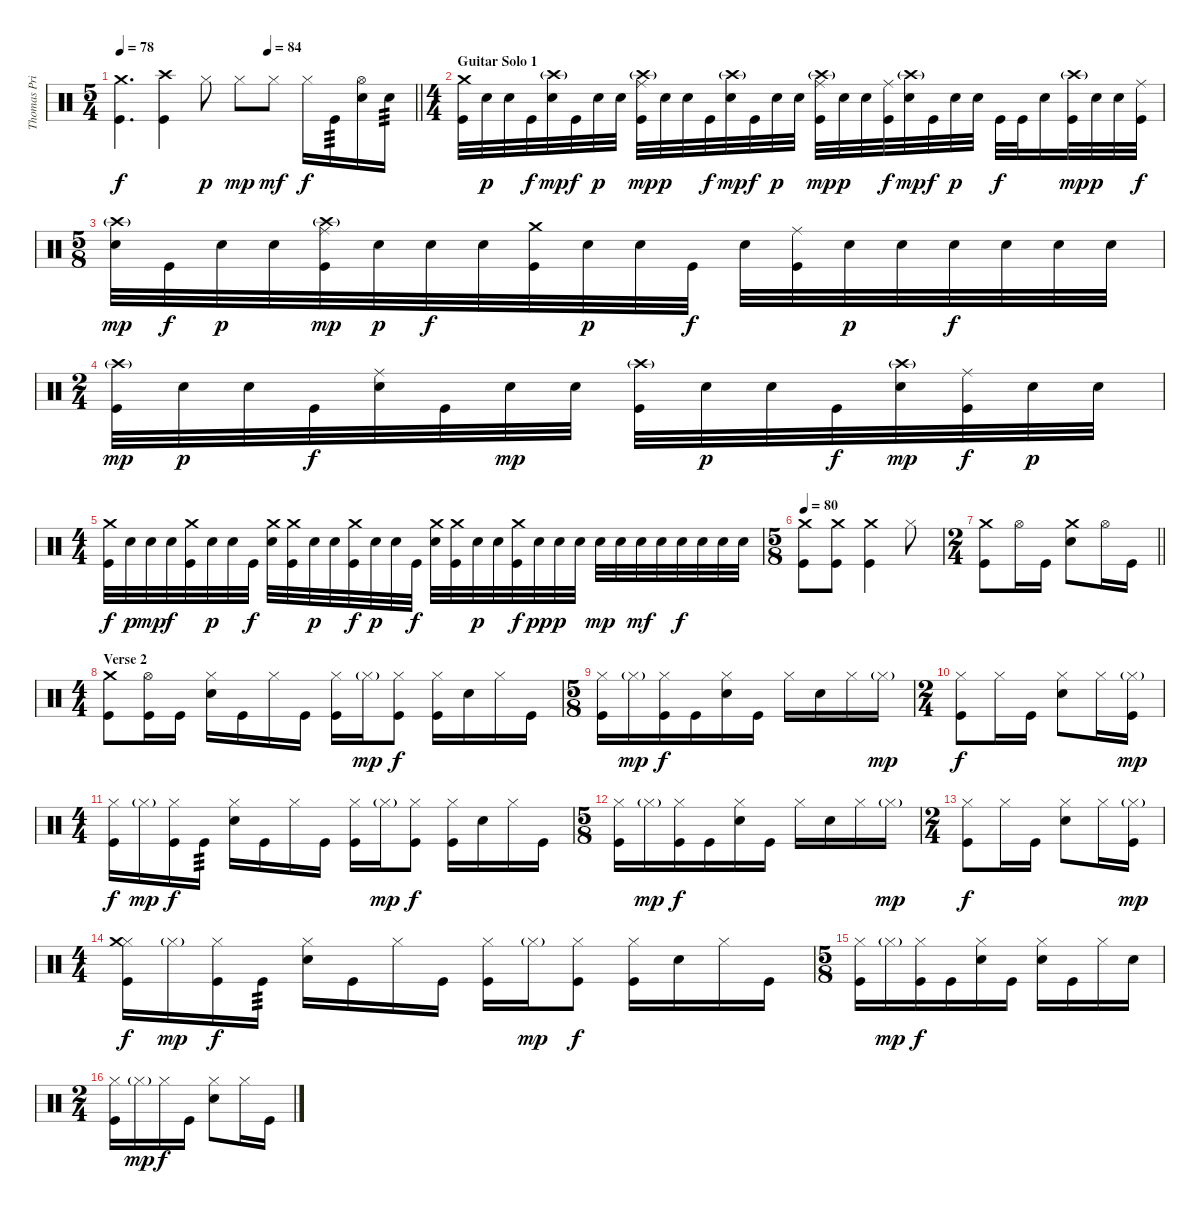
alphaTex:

\track ("Thomas Pridgen" "Thomas Pri") {instrument percussion}
\staff {score}
\articulation defaults
\ts (5 4)
\tempo 78
\tempo (84 0.5)
\clef neutral
\barLineRight lightlight
\ks c
("Crash medium (hit)" "Kick (hit)").4{d dy f} ("Crash high (hit)" "Kick (hit)").4 "Hi-Hat (closed)".8{dy p} "Hi-Hat (closed)".8{dy mp} "Hi-Hat (closed)".8{dy mf} "Hi-Hat (closed)".16{dy f} "Kick (hit)".16{tp 3} ("Hi-Hat (open)" "Snare (hit) 2").16 "Snare (hit) 2".16{tp 3} |
\ts (4 4)
\section ("" "Guitar Solo 1")
("Crash medium (hit)" "Kick (hit)").32 "Snare (hit) 2".32{dy p} "Snare (hit) 2".32 "Kick (hit)".32{dy f} ("Crash high (hit)"{g} "Snare (hit) 2").32{dy mp} "Kick (hit)".32{dy f} "Snare (hit) 2".32{dy p} "Snare (hit) 2".32 ("Crash high (hit)"{g} "Ride (middle)" "Kick (hit)").32{dy mp} "Snare (hit) 2".32{dy p} "Snare (hit) 2".32 "Kick (hit)".32{dy f} ("Crash high (hit)"{g} "Snare (hit) 2").32{dy mp} "Kick (hit)".32{dy f} "Snare (hit) 2".32{dy p} "Snare (hit) 2".32 ("Crash high (hit)"{g} "Ride (middle)" "Kick (hit)").32{dy mp} "Snare (hit) 2".32{dy p} "Snare (hit) 2".32 ("Ride (middle)" "Kick (hit)").32{dy f} ("Crash high (hit)"{g} "Snare (hit) 2").32{dy mp} "Kick (hit)".32{dy f} "Snare (hit) 2".32{dy p} "Snare (hit) 2".32 "Kick (hit)".32{dy f} "Kick (hit)".32 "Snare (hit) 2".16 ("Crash high (hit)"{g} "Kick (hit)").32{dy mp} "Snare (hit) 2".32{dy p} "Snare (hit) 2".32 ("Ride (middle)" "Kick (hit)").32{dy f} |
\ts (5 8)
("Crash high (hit)"{g} "Snare (hit) 2").32{dy mp} "Kick (hit)".32{dy f} "Snare (hit) 2".32{dy p} "Snare (hit) 2".32 ("Crash high (hit)"{g} "Ride (middle)" "Kick (hit)").32{dy mp} "Snare (hit) 2".32{dy p} "Snare (hit) 2".32{dy f} "Snare (hit) 2".32 ("Crash medium (hit)" "Kick (hit)").32 "Snare (hit) 2".32{dy p} "Snare (hit) 2".32 "Kick (hit)".32{dy f} "Snare (hit) 2".32 ("Ride (middle)" "Kick (hit)").32 "Snare (hit) 2".32{dy p} "Snare (hit) 2".32 "Snare (hit) 2".32{dy f} "Snare (hit) 2".32 "Snare (hit) 2".32 "Snare (hit) 2".32 |
\ts (2 4)
("Crash high (hit)"{g} "Kick (hit)").32{dy mp} "Snare (hit) 2".32{dy p} "Snare (hit) 2".32 "Kick (hit)".32{dy f} ("Ride (middle)" "Snare (hit) 2").32 "Kick (hit)".32 "Snare (hit) 2".32{dy mp} "Snare (hit) 2".32 ("Crash high (hit)"{g} "Kick (hit)").32 "Snare (hit) 2".32{dy p} "Snare (hit) 2".32 "Kick (hit)".32{dy f} ("Crash high (hit)"{g} "Snare (hit) 2").32{dy mp} ("Ride (middle)" "Kick (hit)").32{dy f} "Snare (hit) 2".32{dy p} "Snare (hit) 2".32 |
\ts (4 4)
("Crash medium (hit)" "Kick (hit)").32{dy f} "Snare (hit) 2".32{dy p} "Snare (hit) 2".32{dy mp} "Snare (hit) 2".32{dy f} ("Crash medium (hit)" "Kick (hit)").32 "Snare (hit) 2".32{dy p} "Snare (hit) 2".32 "Kick (hit)".32{dy f} ("Crash medium (hit)" "Snare (hit) 2").32 ("Crash medium (hit)" "Kick (hit)").32 "Snare (hit) 2".32{dy p} "Snare (hit) 2".32 ("Crash medium (hit)" "Kick (hit)").32{dy f} "Snare (hit) 2".32{dy p} "Snare (hit) 2".32 "Kick (hit)".32{dy f} ("Crash medium (hit)" "Snare (hit) 2").32 ("Crash medium (hit)" "Kick (hit)").32 "Snare (hit) 2".32{dy p} "Snare (hit) 2".32 ("Crash medium (hit)" "Kick (hit)").32{dy f} "Snare (hit) 2".32{dy pp} "Snare (hit) 2".32{dy p} "Snare (hit) 2".32 "Snare (hit) 2".32{dy mp} "Snare (hit) 2".32 "Snare (hit) 2".32{dy mf} "Snare (hit) 2".32 "Snare (hit) 2".32{dy f} "Snare (hit) 2".32 "Snare (hit) 2".32 "Snare (hit) 2".32 |
\ts (5 8)
\tempo 80
("Crash medium (hit)" "Kick (hit)").8 ("Crash medium (hit)" "Kick (hit)").8 ("Crash medium (hit)" "Kick (hit)").4 "Hi-Hat (closed)".8 |
\ts (2 4)
\barLineRight lightlight
("Crash medium (hit)" "Kick (hit)").8 "Hi-Hat (open)".16 "Kick (hit)".16 ("Crash medium (hit)" "Snare (hit) 2").8 "Hi-Hat (open)".16 "Kick (hit)".16 |
\ts (4 4)
\section ("" "Verse 2")
("Crash medium (hit)" "Kick (hit)").8 ("Hi-Hat (open)" "Kick (hit)").16 "Kick (hit)".16 ("Hi-Hat (closed)" "Snare (hit) 2").16 "Kick (hit)".16 "Hi-Hat (closed)".16 "Kick (hit)".16 ("Hi-Hat (closed)" "Kick (hit)").16 "Hi-Hat (closed)"{g}.16{dy mp} ("Hi-Hat (closed)" "Kick (hit)").8{dy f} ("Hi-Hat (closed)" "Kick (hit)").16 "Snare (hit) 2".16 "Hi-Hat (closed)".16 "Kick (hit)".16 |
\ts (5 8)
("Hi-Hat (closed)" "Kick (hit)").16 "Hi-Hat (closed)"{g}.16{dy mp} ("Hi-Hat (closed)" "Kick (hit)").16{dy f} "Kick (hit)".16 ("Hi-Hat (closed)" "Snare (hit) 2").16 "Kick (hit)".16 "Hi-Hat (closed)".16 "Snare (hit) 2".16 "Hi-Hat (closed)".16 "Hi-Hat (closed)"{g}.16{dy mp} |
\ts (2 4)
("Hi-Hat (closed)" "Kick (hit)").8{dy f} "Hi-Hat (closed)".16 "Kick (hit)".16 ("Hi-Hat (closed)" "Snare (hit) 2").8 "Hi-Hat (closed)".16 ("Hi-Hat (closed)"{g} "Kick (hit)").16{dy mp} |
\ts (4 4)
("Hi-Hat (closed)" "Kick (hit)").16{dy f} "Hi-Hat (closed)"{g}.16{dy mp} ("Hi-Hat (closed)" "Kick (hit)").16{dy f} "Kick (hit)".16{tp 3} ("Hi-Hat (closed)" "Snare (hit) 2").16 "Kick (hit)".16 "Hi-Hat (closed)".16 "Kick (hit)".16 ("Hi-Hat (closed)" "Kick (hit)").16 "Hi-Hat (closed)"{g}.16{dy mp} ("Hi-Hat (closed)" "Kick (hit)").8{dy f} ("Hi-Hat (closed)" "Kick (hit)").16 "Snare (hit) 2".16 "Hi-Hat (closed)".16 "Kick (hit)".16 |
\ts (5 8)
("Hi-Hat (closed)" "Kick (hit)").16 "Hi-Hat (closed)"{g}.16{dy mp} ("Hi-Hat (closed)" "Kick (hit)").16{dy f} "Kick (hit)".16 ("Hi-Hat (closed)" "Snare (hit) 2").16 "Kick (hit)".16 "Hi-Hat (closed)".16 "Snare (hit) 2".16 "Hi-Hat (closed)".16 "Hi-Hat (closed)"{g}.16{dy mp} |
\ts (2 4)
("Hi-Hat (closed)" "Kick (hit)").8{dy f} "Hi-Hat (closed)".16 "Kick (hit)".16 ("Hi-Hat (closed)" "Snare (hit) 2").8 "Hi-Hat (closed)".16 ("Hi-Hat (closed)"{g} "Kick (hit)").16{dy mp} |
\ts (4 4)
("Hi-Hat (closed)" "Crash medium (hit)" "Kick (hit)").16{dy f} "Hi-Hat (closed)"{g}.16{dy mp} ("Hi-Hat (closed)" "Kick (hit)").16{dy f} "Kick (hit)".16{tp 3} ("Hi-Hat (closed)" "Snare (hit) 2").16 "Kick (hit)".16 "Hi-Hat (closed)".16 "Kick (hit)".16 ("Hi-Hat (closed)" "Kick (hit)").16 "Hi-Hat (closed)"{g}.16{dy mp} ("Hi-Hat (closed)" "Kick (hit)").8{dy f} ("Hi-Hat (closed)" "Kick (hit)").16 "Snare (hit) 2".16 "Hi-Hat (closed)".16 "Kick (hit)".16 |
\ts (5 8)
("Hi-Hat (closed)" "Kick (hit)").16 "Hi-Hat (closed)"{g}.16{dy mp} ("Hi-Hat (closed)" "Kick (hit)").16{dy f} "Kick (hit)".16 ("Hi-Hat (closed)" "Snare (hit) 2").16 "Kick (hit)".16 ("Hi-Hat (closed)" "Snare (hit) 2").16 "Kick (hit)".16 "Hi-Hat (closed)".16 "Snare (hit) 2".16 |
\ts (2 4)
("Hi-Hat (closed)" "Kick (hit)").16 "Hi-Hat (closed)"{g}.16{dy mp} "Hi-Hat (closed)".16{dy f} "Kick (hit)".16 ("Hi-Hat (closed)" "Snare (hit) 2").8 "Hi-Hat (closed)".16 "Kick (hit)".16
